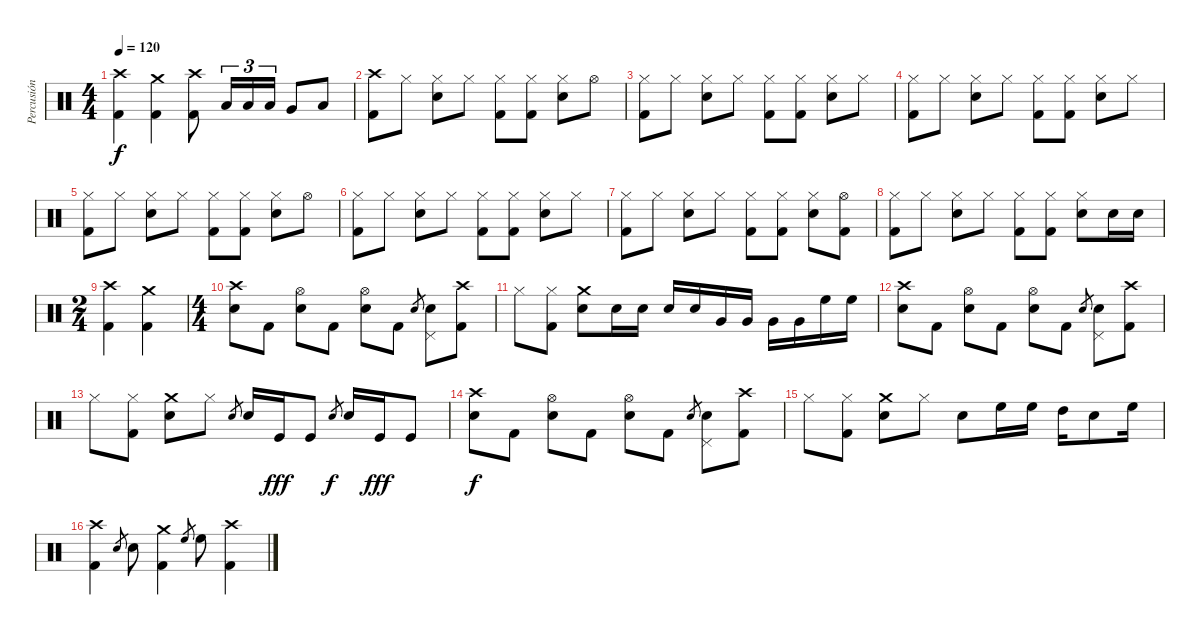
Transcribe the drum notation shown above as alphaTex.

\track ("Percusión" "Percusión") {instrument percussion}
\staff {score}
\articulation defaults
\ts (4 4)
\tempo 120
\clef neutral
\ks c
("Crash high (hit)" "Kick (hit) 2").4{dy f} ("Crash medium (hit)" "Kick (hit) 2").4 ("Crash high (hit)" "Kick (hit) 2").8 "Low Tom (hit)".16{tu (3 2)} "Low Tom (hit)".16{tu (3 2)} "Low Tom (hit)".16{tu (3 2)} "Very Low Tom (hit)".8 "Low Tom (hit)".8 |
("Crash high (hit)" "Kick (hit) 2").8 "Hi-Hat (closed)".8 ("Hi-Hat (closed)" "Electric Snare (hit)").8 "Hi-Hat (closed)".8 ("Hi-Hat (closed)" "Kick (hit) 2").8 ("Hi-Hat (closed)" "Kick (hit) 2").8 ("Hi-Hat (closed)" "Electric Snare (hit)").8 "Hi-Hat (open)".8 |
("Hi-Hat (closed)" "Kick (hit) 2").8 "Hi-Hat (closed)".8 ("Hi-Hat (closed)" "Electric Snare (hit)").8 "Hi-Hat (closed)".8 ("Hi-Hat (closed)" "Kick (hit) 2").8 ("Hi-Hat (closed)" "Kick (hit) 2").8 ("Hi-Hat (closed)" "Electric Snare (hit)").8 "Hi-Hat (closed)".8 |
("Hi-Hat (closed)" "Kick (hit) 2").8 "Hi-Hat (closed)".8 ("Hi-Hat (closed)" "Electric Snare (hit)").8 "Hi-Hat (closed)".8 ("Hi-Hat (closed)" "Kick (hit) 2").8 ("Hi-Hat (closed)" "Kick (hit) 2").8 ("Hi-Hat (closed)" "Electric Snare (hit)").8 "Hi-Hat (closed)".8 |
("Hi-Hat (closed)" "Kick (hit) 2").8 "Hi-Hat (closed)".8 ("Hi-Hat (closed)" "Electric Snare (hit)").8 "Hi-Hat (closed)".8 ("Hi-Hat (closed)" "Kick (hit) 2").8 ("Hi-Hat (closed)" "Kick (hit) 2").8 ("Hi-Hat (closed)" "Electric Snare (hit)").8 "Hi-Hat (open)".8 |
("Hi-Hat (closed)" "Kick (hit) 2").8 "Hi-Hat (closed)".8 ("Hi-Hat (closed)" "Electric Snare (hit)").8 "Hi-Hat (closed)".8 ("Hi-Hat (closed)" "Kick (hit) 2").8 ("Hi-Hat (closed)" "Kick (hit) 2").8 ("Hi-Hat (closed)" "Electric Snare (hit)").8 "Hi-Hat (closed)".8 |
("Hi-Hat (closed)" "Kick (hit) 2").8 "Hi-Hat (closed)".8 ("Hi-Hat (closed)" "Electric Snare (hit)").8 "Hi-Hat (closed)".8 ("Hi-Hat (closed)" "Kick (hit) 2").8 ("Hi-Hat (closed)" "Kick (hit) 2").8 ("Hi-Hat (closed)" "Electric Snare (hit)").8 ("Hi-Hat (open)" "Kick (hit) 2").8 |
("Hi-Hat (closed)" "Kick (hit) 2").8 "Hi-Hat (closed)".8 ("Hi-Hat (closed)" "Electric Snare (hit)").8 "Hi-Hat (closed)".8 ("Hi-Hat (closed)" "Kick (hit) 2").8 ("Hi-Hat (closed)" "Kick (hit) 2").8 ("Hi-Hat (closed)" "Electric Snare (hit)").8 "Electric Snare (hit)".16 "Electric Snare (hit)".16 |
\ts (2 4)
("Crash high (hit)" "Kick (hit) 2").4 ("Crash medium (hit)" "Kick (hit) 2").4 |
\ts (4 4)
("Crash high (hit)" "Electric Snare (hit)").8 "Kick (hit) 2".8 ("Hi-Hat (open)" "Electric Snare (hit)").8 "Kick (hit) 2".8 ("Hi-Hat (open)" "Electric Snare (hit)").8 "Kick (hit) 2".8 "Snare (hit) 2".8{gr} ("Pedal Hi-Hat (hit)" "Snare (hit) 2").8 ("Crash high (hit)" "Kick (hit) 2").8 |
"Hi-Hat (closed)".8 ("Hi-Hat (closed)" "Kick (hit) 2").8 ("Crash medium (hit)" "Snare (hit) 2").8 "Snare (hit) 2".16 "Snare (hit) 2".16 "Snare (hit) 2".16 "Snare (hit) 2".16 "Very Low Tom (hit)".16 "Very Low Tom (hit)".16 "Very Low Tom (hit)".16 "Very Low Tom (hit)".16 "High Floor Tom (hit)".16 "High Floor Tom (hit)".16 |
("Crash high (hit)" "Electric Snare (hit)").8 "Kick (hit) 2".8 ("Hi-Hat (open)" "Electric Snare (hit)").8 "Kick (hit) 2".8 ("Hi-Hat (open)" "Electric Snare (hit)").8 "Kick (hit) 2".8 "Snare (hit) 2".8{gr} ("Pedal Hi-Hat (hit)" "Snare (hit) 2").8 ("Crash high (hit)" "Kick (hit) 2").8 |
"Hi-Hat (closed)".8 ("Hi-Hat (closed)" "Kick (hit) 2").8 ("Crash medium (hit)" "Snare (hit) 2").8 "Hi-Hat (closed)".8 "Snare (hit) 2".8{gr} "Snare (hit) 2".16 "Kick (hit)".16{dy fff} "Kick (hit)".8 "Snare (hit) 2".8{gr dy f} "Snare (hit) 2".16 "Kick (hit)".16{dy fff} "Kick (hit)".8 |
("Crash high (hit)" "Electric Snare (hit)").8{dy f} "Kick (hit) 2".8 ("Hi-Hat (open)" "Electric Snare (hit)").8 "Kick (hit) 2".8 ("Hi-Hat (open)" "Electric Snare (hit)").8 "Kick (hit) 2".8 "Snare (hit) 2".8{gr} ("Pedal Hi-Hat (hit)" "Snare (hit) 2").8 ("Crash high (hit)" "Kick (hit) 2").8 |
"Hi-Hat (closed)".8 ("Hi-Hat (closed)" "Kick (hit) 2").8 ("Crash medium (hit)" "Snare (hit) 2").8 "Hi-Hat (closed)".8 "Snare (hit) 2".8 "High Floor Tom (hit)".16 "High Floor Tom (hit)".16 "High Tom (hit)".16 "Snare (hit) 2".8 "High Floor Tom (hit)".16 |
("Crash high (hit)" "Kick (hit) 2").4 "Snare (hit) 2".8{gr} "Snare (hit) 2".8 ("Crash medium (hit)" "Kick (hit) 2").4 "High Floor Tom (hit)".8{gr} "High Floor Tom (hit)".8 ("Crash high (hit)" "Kick (hit) 2").4
